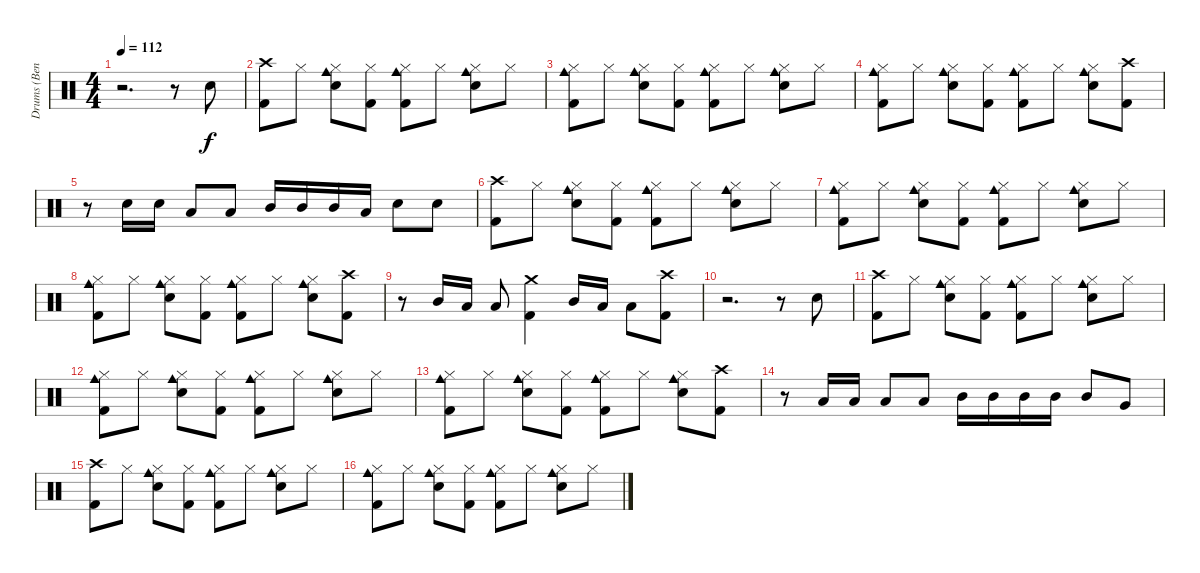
\track ("Drums (Bengerg)" "Drums (Ben") {instrument percussion}
\staff {score}
\articulation defaults
\ts (4 4)
\tempo 112
\clef neutral
\ks c
r.2{d dy f} r.8 "Electric Snare (hit)".8 |
("Crash high (hit)" "Kick (hit) 2").8 "Hi-Hat (closed)".8 ("Hi-Hat (closed)" "Cowbell medium (hit)" "Electric Snare (hit)").8 ("Hi-Hat (closed)" "Kick (hit) 2").8 ("Hi-Hat (closed)" "Cowbell medium (hit)" "Kick (hit) 2").8 "Hi-Hat (closed)".8 ("Hi-Hat (closed)" "Cowbell medium (hit)" "Electric Snare (hit)").8 "Hi-Hat (closed)".8 |
("Hi-Hat (closed)" "Cowbell medium (hit)" "Kick (hit) 2").8 "Hi-Hat (closed)".8 ("Hi-Hat (closed)" "Cowbell medium (hit)" "Electric Snare (hit)").8 ("Hi-Hat (closed)" "Kick (hit) 2").8 ("Hi-Hat (closed)" "Cowbell medium (hit)" "Kick (hit) 2").8 "Hi-Hat (closed)".8 ("Hi-Hat (closed)" "Cowbell medium (hit)" "Electric Snare (hit)").8 "Hi-Hat (closed)".8 |
("Hi-Hat (closed)" "Cowbell medium (hit)" "Kick (hit) 2").8 "Hi-Hat (closed)".8 ("Hi-Hat (closed)" "Cowbell medium (hit)" "Electric Snare (hit)").8 ("Hi-Hat (closed)" "Kick (hit) 2").8 ("Hi-Hat (closed)" "Cowbell medium (hit)" "Kick (hit) 2").8 "Hi-Hat (closed)".8 ("Hi-Hat (closed)" "Cowbell medium (hit)" "Electric Snare (hit)").8 ("Crash high (hit)" "Kick (hit) 2").8 |
r.8 "Electric Snare (hit)".16 "Electric Snare (hit)".16 "Low Tom (hit)".8 "Low Tom (hit)".8 "Mid Tom (hit)".16 "Mid Tom (hit)".16 "Mid Tom (hit)".16 "Low Tom (hit)".16 "Electric Snare (hit)".8 "Electric Snare (hit)".8 |
("Crash high (hit)" "Kick (hit) 2").8 "Hi-Hat (closed)".8 ("Hi-Hat (closed)" "Cowbell medium (hit)" "Electric Snare (hit)").8 ("Hi-Hat (closed)" "Kick (hit) 2").8 ("Hi-Hat (closed)" "Cowbell medium (hit)" "Kick (hit) 2").8 "Hi-Hat (closed)".8 ("Hi-Hat (closed)" "Cowbell medium (hit)" "Electric Snare (hit)").8 "Hi-Hat (closed)".8 |
("Hi-Hat (closed)" "Cowbell medium (hit)" "Kick (hit) 2").8 "Hi-Hat (closed)".8 ("Hi-Hat (closed)" "Cowbell medium (hit)" "Electric Snare (hit)").8 ("Hi-Hat (closed)" "Kick (hit) 2").8 ("Hi-Hat (closed)" "Cowbell medium (hit)" "Kick (hit) 2").8 "Hi-Hat (closed)".8 ("Hi-Hat (closed)" "Cowbell medium (hit)" "Electric Snare (hit)").8 "Hi-Hat (closed)".8 |
("Hi-Hat (closed)" "Cowbell medium (hit)" "Kick (hit) 2").8 "Hi-Hat (closed)".8 ("Hi-Hat (closed)" "Cowbell medium (hit)" "Electric Snare (hit)").8 ("Hi-Hat (closed)" "Kick (hit) 2").8 ("Hi-Hat (closed)" "Cowbell medium (hit)" "Kick (hit) 2").8 "Hi-Hat (closed)".8 ("Hi-Hat (closed)" "Cowbell medium (hit)" "Electric Snare (hit)").8 ("Crash high (hit)" "Kick (hit) 2").8 |
r.8 "Mid Tom (hit)".16 "Low Tom (hit)".16 "Low Tom (hit)".8 ("Crash medium (hit)" "Kick (hit) 2").4 "Mid Tom (hit)".16 "Low Tom (hit)".16 "Low Tom (hit)".8 ("Crash high (hit)" "Kick (hit) 2").8 |
r.2{d} r.8 "Electric Snare (hit)".8 |
("Crash high (hit)" "Kick (hit) 2").8 "Hi-Hat (closed)".8 ("Hi-Hat (closed)" "Cowbell medium (hit)" "Electric Snare (hit)").8 ("Hi-Hat (closed)" "Kick (hit) 2").8 ("Hi-Hat (closed)" "Cowbell medium (hit)" "Kick (hit) 2").8 "Hi-Hat (closed)".8 ("Hi-Hat (closed)" "Cowbell medium (hit)" "Electric Snare (hit)").8 "Hi-Hat (closed)".8 |
("Hi-Hat (closed)" "Cowbell medium (hit)" "Kick (hit) 2").8 "Hi-Hat (closed)".8 ("Hi-Hat (closed)" "Cowbell medium (hit)" "Electric Snare (hit)").8 ("Hi-Hat (closed)" "Kick (hit) 2").8 ("Hi-Hat (closed)" "Cowbell medium (hit)" "Kick (hit) 2").8 "Hi-Hat (closed)".8 ("Hi-Hat (closed)" "Cowbell medium (hit)" "Electric Snare (hit)").8 "Hi-Hat (closed)".8 |
("Hi-Hat (closed)" "Cowbell medium (hit)" "Kick (hit) 2").8 "Hi-Hat (closed)".8 ("Hi-Hat (closed)" "Cowbell medium (hit)" "Electric Snare (hit)").8 ("Hi-Hat (closed)" "Kick (hit) 2").8 ("Hi-Hat (closed)" "Cowbell medium (hit)" "Kick (hit) 2").8 "Hi-Hat (closed)".8 ("Hi-Hat (closed)" "Cowbell medium (hit)" "Electric Snare (hit)").8 ("Crash high (hit)" "Kick (hit) 2").8 |
r.8 "Low Tom (hit)".16 "Low Tom (hit)".16 "Low Tom (hit)".8 "Low Tom (hit)".8 "Mid Tom (hit)".16 "Mid Tom (hit)".16 "Mid Tom (hit)".16 "Mid Tom (hit)".16 "Mid Tom (hit)".8 "Very Low Tom (hit)".8 |
("Crash high (hit)" "Kick (hit) 2").8 "Hi-Hat (closed)".8 ("Hi-Hat (closed)" "Cowbell medium (hit)" "Electric Snare (hit)").8 ("Hi-Hat (closed)" "Kick (hit) 2").8 ("Hi-Hat (closed)" "Cowbell medium (hit)" "Kick (hit) 2").8 "Hi-Hat (closed)".8 ("Hi-Hat (closed)" "Cowbell medium (hit)" "Electric Snare (hit)").8 "Hi-Hat (closed)".8 |
("Hi-Hat (closed)" "Cowbell medium (hit)" "Kick (hit) 2").8 "Hi-Hat (closed)".8 ("Hi-Hat (closed)" "Cowbell medium (hit)" "Electric Snare (hit)").8 ("Hi-Hat (closed)" "Kick (hit) 2").8 ("Hi-Hat (closed)" "Cowbell medium (hit)" "Kick (hit) 2").8 "Hi-Hat (closed)".8 ("Hi-Hat (closed)" "Cowbell medium (hit)" "Electric Snare (hit)").8 "Hi-Hat (closed)".8
